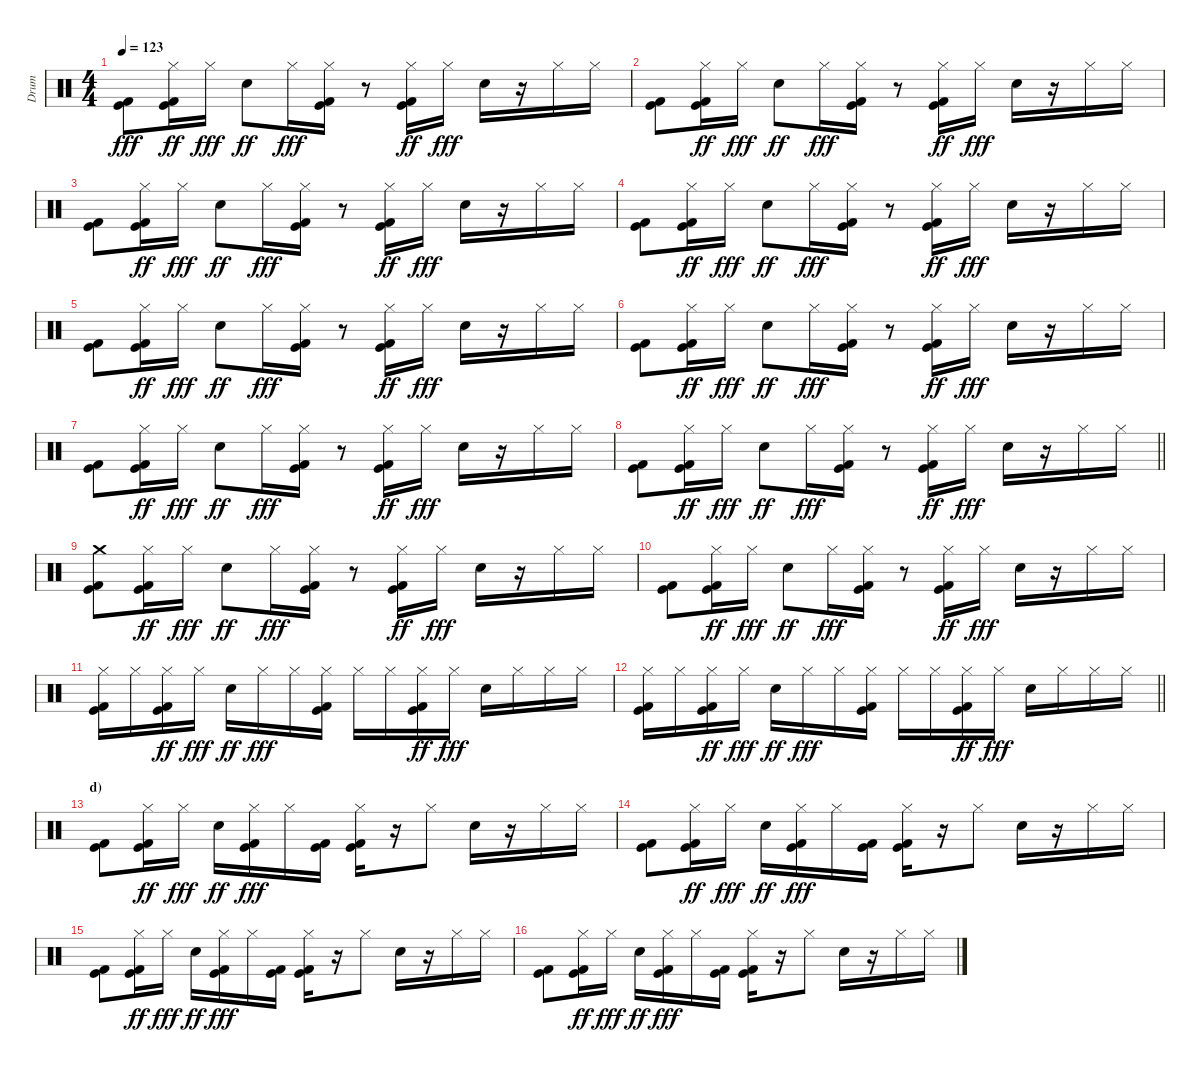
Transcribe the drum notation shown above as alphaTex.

\track ("Drum" "Drum") {instrument percussion}
\staff {score}
\articulation defaults
\ts (4 4)
\tempo 123
\clef neutral
\ks c
("Kick (hit)" "Kick (hit) 2").8{dy fff} ("Hi-Hat (closed)" "Kick (hit)" "Kick (hit) 2").16{dy ff} "Hi-Hat (closed)".16{dy fff} "Electric Snare (hit)".8{dy ff} "Hi-Hat (closed)".16{dy fff} ("Hi-Hat (closed)" "Kick (hit)" "Kick (hit) 2").16 r.8 ("Hi-Hat (closed)" "Kick (hit)" "Kick (hit) 2").16{dy ff} "Hi-Hat (closed)".16{dy fff} "Electric Snare (hit)".16 r.16 "Hi-Hat (closed)".16 "Hi-Hat (closed)".16 |
("Kick (hit)" "Kick (hit) 2").8 ("Hi-Hat (closed)" "Kick (hit)" "Kick (hit) 2").16{dy ff} "Hi-Hat (closed)".16{dy fff} "Electric Snare (hit)".8{dy ff} "Hi-Hat (closed)".16{dy fff} ("Hi-Hat (closed)" "Kick (hit)" "Kick (hit) 2").16 r.8 ("Hi-Hat (closed)" "Kick (hit)" "Kick (hit) 2").16{dy ff} "Hi-Hat (closed)".16{dy fff} "Electric Snare (hit)".16 r.16 "Hi-Hat (closed)".16 "Hi-Hat (closed)".16 |
("Kick (hit)" "Kick (hit) 2").8 ("Hi-Hat (closed)" "Kick (hit)" "Kick (hit) 2").16{dy ff} "Hi-Hat (closed)".16{dy fff} "Electric Snare (hit)".8{dy ff} "Hi-Hat (closed)".16{dy fff} ("Hi-Hat (closed)" "Kick (hit)" "Kick (hit) 2").16 r.8 ("Hi-Hat (closed)" "Kick (hit)" "Kick (hit) 2").16{dy ff} "Hi-Hat (closed)".16{dy fff} "Electric Snare (hit)".16 r.16 "Hi-Hat (closed)".16 "Hi-Hat (closed)".16 |
("Kick (hit)" "Kick (hit) 2").8 ("Hi-Hat (closed)" "Kick (hit)" "Kick (hit) 2").16{dy ff} "Hi-Hat (closed)".16{dy fff} "Electric Snare (hit)".8{dy ff} "Hi-Hat (closed)".16{dy fff} ("Hi-Hat (closed)" "Kick (hit)" "Kick (hit) 2").16 r.8 ("Hi-Hat (closed)" "Kick (hit)" "Kick (hit) 2").16{dy ff} "Hi-Hat (closed)".16{dy fff} "Electric Snare (hit)".16 r.16 "Hi-Hat (closed)".16 "Hi-Hat (closed)".16 |
("Kick (hit)" "Kick (hit) 2").8 ("Hi-Hat (closed)" "Kick (hit)" "Kick (hit) 2").16{dy ff} "Hi-Hat (closed)".16{dy fff} "Electric Snare (hit)".8{dy ff} "Hi-Hat (closed)".16{dy fff} ("Hi-Hat (closed)" "Kick (hit)" "Kick (hit) 2").16 r.8 ("Hi-Hat (closed)" "Kick (hit)" "Kick (hit) 2").16{dy ff} "Hi-Hat (closed)".16{dy fff} "Electric Snare (hit)".16 r.16 "Hi-Hat (closed)".16 "Hi-Hat (closed)".16 |
("Kick (hit)" "Kick (hit) 2").8 ("Hi-Hat (closed)" "Kick (hit)" "Kick (hit) 2").16{dy ff} "Hi-Hat (closed)".16{dy fff} "Electric Snare (hit)".8{dy ff} "Hi-Hat (closed)".16{dy fff} ("Hi-Hat (closed)" "Kick (hit)" "Kick (hit) 2").16 r.8 ("Hi-Hat (closed)" "Kick (hit)" "Kick (hit) 2").16{dy ff} "Hi-Hat (closed)".16{dy fff} "Electric Snare (hit)".16 r.16 "Hi-Hat (closed)".16 "Hi-Hat (closed)".16 |
("Kick (hit)" "Kick (hit) 2").8 ("Hi-Hat (closed)" "Kick (hit)" "Kick (hit) 2").16{dy ff} "Hi-Hat (closed)".16{dy fff} "Electric Snare (hit)".8{dy ff} "Hi-Hat (closed)".16{dy fff} ("Hi-Hat (closed)" "Kick (hit)" "Kick (hit) 2").16 r.8 ("Hi-Hat (closed)" "Kick (hit)" "Kick (hit) 2").16{dy ff} "Hi-Hat (closed)".16{dy fff} "Electric Snare (hit)".16 r.16 "Hi-Hat (closed)".16 "Hi-Hat (closed)".16 |
\barLineRight lightlight
("Kick (hit)" "Kick (hit) 2").8 ("Hi-Hat (closed)" "Kick (hit)" "Kick (hit) 2").16{dy ff} "Hi-Hat (closed)".16{dy fff} "Electric Snare (hit)".8{dy ff} "Hi-Hat (closed)".16{dy fff} ("Hi-Hat (closed)" "Kick (hit)" "Kick (hit) 2").16 r.8 ("Hi-Hat (closed)" "Kick (hit)" "Kick (hit) 2").16{dy ff} "Hi-Hat (closed)".16{dy fff} "Electric Snare (hit)".16 r.16 "Hi-Hat (closed)".16 "Hi-Hat (closed)".16 |
("Crash medium (hit)" "Kick (hit)" "Kick (hit) 2").8 ("Hi-Hat (closed)" "Kick (hit)" "Kick (hit) 2").16{dy ff} "Hi-Hat (closed)".16{dy fff} "Electric Snare (hit)".8{dy ff} "Hi-Hat (closed)".16{dy fff} ("Hi-Hat (closed)" "Kick (hit)" "Kick (hit) 2").16 r.8 ("Hi-Hat (closed)" "Kick (hit)" "Kick (hit) 2").16{dy ff} "Hi-Hat (closed)".16{dy fff} "Electric Snare (hit)".16 r.16 "Hi-Hat (closed)".16 "Hi-Hat (closed)".16 |
("Kick (hit)" "Kick (hit) 2").8 ("Hi-Hat (closed)" "Kick (hit)" "Kick (hit) 2").16{dy ff} "Hi-Hat (closed)".16{dy fff} "Electric Snare (hit)".8{dy ff} "Hi-Hat (closed)".16{dy fff} ("Hi-Hat (closed)" "Kick (hit)" "Kick (hit) 2").16 r.8 ("Hi-Hat (closed)" "Kick (hit)" "Kick (hit) 2").16{dy ff} "Hi-Hat (closed)".16{dy fff} "Electric Snare (hit)".16 r.16 "Hi-Hat (closed)".16 "Hi-Hat (closed)".16 |
("Hi-Hat (closed)" "Kick (hit)" "Kick (hit) 2").16 "Hi-Hat (closed)".16 ("Hi-Hat (closed)" "Kick (hit)" "Kick (hit) 2").16{dy ff} "Hi-Hat (closed)".16{dy fff} "Electric Snare (hit)".16{dy ff} "Hi-Hat (closed)".16{dy fff} "Hi-Hat (closed)".16 ("Hi-Hat (closed)" "Kick (hit)" "Kick (hit) 2").16 "Hi-Hat (closed)".16 "Hi-Hat (closed)".16 ("Hi-Hat (closed)" "Kick (hit)" "Kick (hit) 2").16{dy ff} "Hi-Hat (closed)".16{dy fff} "Electric Snare (hit)".16 "Hi-Hat (closed)".16 "Hi-Hat (closed)".16 "Hi-Hat (closed)".16 |
\barLineRight lightlight
("Hi-Hat (closed)" "Kick (hit)" "Kick (hit) 2").16 "Hi-Hat (closed)".16 ("Hi-Hat (closed)" "Kick (hit)" "Kick (hit) 2").16{dy ff} "Hi-Hat (closed)".16{dy fff} "Electric Snare (hit)".16{dy ff} "Hi-Hat (closed)".16{dy fff} "Hi-Hat (closed)".16 ("Hi-Hat (closed)" "Kick (hit)" "Kick (hit) 2").16 "Hi-Hat (closed)".16 "Hi-Hat (closed)".16 ("Hi-Hat (closed)" "Kick (hit)" "Kick (hit) 2").16{dy ff} "Hi-Hat (closed)".16{dy fff} "Electric Snare (hit)".16 "Hi-Hat (closed)".16 "Hi-Hat (closed)".16 "Hi-Hat (closed)".16 |
\section ("" "d)")
("Kick (hit)" "Kick (hit) 2").8 ("Hi-Hat (closed)" "Kick (hit)" "Kick (hit) 2").16{dy ff} "Hi-Hat (closed)".16{dy fff} "Electric Snare (hit)".16{dy ff} ("Hi-Hat (closed)" "Kick (hit)" "Kick (hit) 2").16{dy fff} "Hi-Hat (closed)".16 ("Kick (hit)" "Kick (hit) 2").16 ("Hi-Hat (closed)" "Kick (hit)" "Kick (hit) 2").16 r.16 "Hi-Hat (closed)".8 "Electric Snare (hit)".16 r.16 "Hi-Hat (closed)".16 "Hi-Hat (closed)".16 |
("Kick (hit)" "Kick (hit) 2").8 ("Hi-Hat (closed)" "Kick (hit)" "Kick (hit) 2").16{dy ff} "Hi-Hat (closed)".16{dy fff} "Electric Snare (hit)".16{dy ff} ("Hi-Hat (closed)" "Kick (hit)" "Kick (hit) 2").16{dy fff} "Hi-Hat (closed)".16 ("Kick (hit)" "Kick (hit) 2").16 ("Hi-Hat (closed)" "Kick (hit)" "Kick (hit) 2").16 r.16 "Hi-Hat (closed)".8 "Electric Snare (hit)".16 r.16 "Hi-Hat (closed)".16 "Hi-Hat (closed)".16 |
("Kick (hit)" "Kick (hit) 2").8 ("Hi-Hat (closed)" "Kick (hit)" "Kick (hit) 2").16{dy ff} "Hi-Hat (closed)".16{dy fff} "Electric Snare (hit)".16{dy ff} ("Hi-Hat (closed)" "Kick (hit)" "Kick (hit) 2").16{dy fff} "Hi-Hat (closed)".16 ("Kick (hit)" "Kick (hit) 2").16 ("Hi-Hat (closed)" "Kick (hit)" "Kick (hit) 2").16 r.16 "Hi-Hat (closed)".8 "Electric Snare (hit)".16 r.16 "Hi-Hat (closed)".16 "Hi-Hat (closed)".16 |
("Kick (hit)" "Kick (hit) 2").8 ("Hi-Hat (closed)" "Kick (hit)" "Kick (hit) 2").16{dy ff} "Hi-Hat (closed)".16{dy fff} "Electric Snare (hit)".16{dy ff} ("Hi-Hat (closed)" "Kick (hit)" "Kick (hit) 2").16{dy fff} "Hi-Hat (closed)".16 ("Kick (hit)" "Kick (hit) 2").16 ("Hi-Hat (closed)" "Kick (hit)" "Kick (hit) 2").16 r.16 "Hi-Hat (closed)".8 "Electric Snare (hit)".16 r.16 "Hi-Hat (closed)".16 "Hi-Hat (closed)".16
